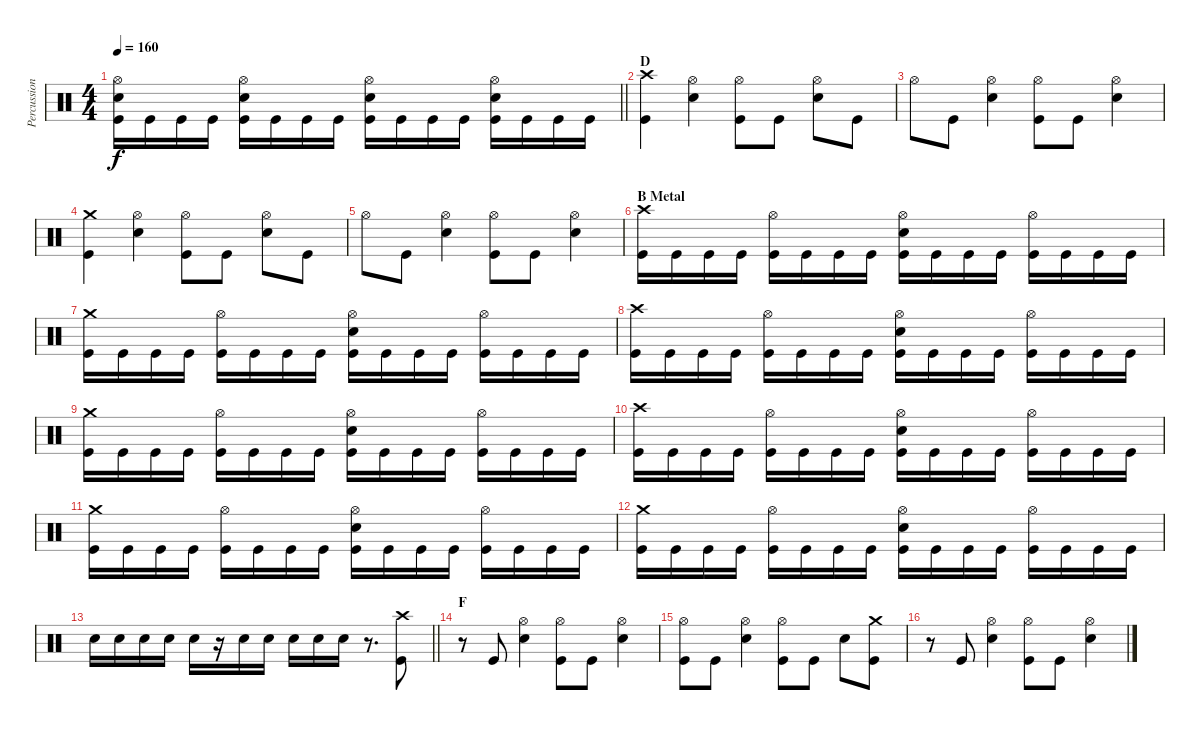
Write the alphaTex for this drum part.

\track ("Percussion" "Percussion") {instrument percussion}
\staff {score}
\articulation defaults
\ts (4 4)
\tempo 160
\clef neutral
\barLineRight lightlight
\ks c
("Hi-Hat (open)" "Electric Snare (hit)" "Kick (hit)").16{dy f} "Kick (hit)".16 "Kick (hit)".16 "Kick (hit)".16 ("Hi-Hat (open)" "Electric Snare (hit)" "Kick (hit)").16 "Kick (hit)".16 "Kick (hit)".16 "Kick (hit)".16 ("Hi-Hat (open)" "Electric Snare (hit)" "Kick (hit)").16 "Kick (hit)".16 "Kick (hit)".16 "Kick (hit)".16 ("Hi-Hat (open)" "Electric Snare (hit)" "Kick (hit)").16 "Kick (hit)".16 "Kick (hit)".16 "Kick (hit)".16 |
\section ("" "D")
("Crash high (hit)" "Kick (hit)").4 ("Hi-Hat (open)" "Electric Snare (hit)").4 ("Hi-Hat (open)" "Kick (hit)").8 "Kick (hit)".8 ("Hi-Hat (open)" "Electric Snare (hit)").8 "Kick (hit)".8 |
"Hi-Hat (open)".8 "Kick (hit)".8 ("Hi-Hat (open)" "Electric Snare (hit)").4 ("Hi-Hat (open)" "Kick (hit)").8 "Kick (hit)".8 ("Hi-Hat (open)" "Electric Snare (hit)").4 |
("Crash medium (hit)" "Kick (hit)").4 ("Hi-Hat (open)" "Electric Snare (hit)").4 ("Hi-Hat (open)" "Kick (hit)").8 "Kick (hit)".8 ("Hi-Hat (open)" "Electric Snare (hit)").8 "Kick (hit)".8 |
"Hi-Hat (open)".8 "Kick (hit)".8 ("Hi-Hat (open)" "Electric Snare (hit)").4 ("Hi-Hat (open)" "Kick (hit)").8 "Kick (hit)".8 ("Hi-Hat (open)" "Electric Snare (hit)").4 |
\section ("" "B Metal")
("Crash high (hit)" "Kick (hit)").16 "Kick (hit)".16 "Kick (hit)".16 "Kick (hit)".16 ("Hi-Hat (open)" "Kick (hit)").16 "Kick (hit)".16 "Kick (hit)".16 "Kick (hit)".16 ("Hi-Hat (open)" "Electric Snare (hit)" "Kick (hit)").16 "Kick (hit)".16 "Kick (hit)".16 "Kick (hit)".16 ("Hi-Hat (open)" "Kick (hit)").16 "Kick (hit)".16 "Kick (hit)".16 "Kick (hit)".16 |
("Crash medium (hit)" "Kick (hit)").16 "Kick (hit)".16 "Kick (hit)".16 "Kick (hit)".16 ("Hi-Hat (open)" "Kick (hit)").16 "Kick (hit)".16 "Kick (hit)".16 "Kick (hit)".16 ("Hi-Hat (open)" "Electric Snare (hit)" "Kick (hit)").16 "Kick (hit)".16 "Kick (hit)".16 "Kick (hit)".16 ("Hi-Hat (open)" "Kick (hit)").16 "Kick (hit)".16 "Kick (hit)".16 "Kick (hit)".16 |
("Crash high (hit)" "Kick (hit)").16 "Kick (hit)".16 "Kick (hit)".16 "Kick (hit)".16 ("Hi-Hat (open)" "Kick (hit)").16 "Kick (hit)".16 "Kick (hit)".16 "Kick (hit)".16 ("Hi-Hat (open)" "Electric Snare (hit)" "Kick (hit)").16 "Kick (hit)".16 "Kick (hit)".16 "Kick (hit)".16 ("Hi-Hat (open)" "Kick (hit)").16 "Kick (hit)".16 "Kick (hit)".16 "Kick (hit)".16 |
("Crash medium (hit)" "Kick (hit)").16 "Kick (hit)".16 "Kick (hit)".16 "Kick (hit)".16 ("Hi-Hat (open)" "Kick (hit)").16 "Kick (hit)".16 "Kick (hit)".16 "Kick (hit)".16 ("Hi-Hat (open)" "Electric Snare (hit)" "Kick (hit)").16 "Kick (hit)".16 "Kick (hit)".16 "Kick (hit)".16 ("Hi-Hat (open)" "Kick (hit)").16 "Kick (hit)".16 "Kick (hit)".16 "Kick (hit)".16 |
("Crash high (hit)" "Kick (hit)").16 "Kick (hit)".16 "Kick (hit)".16 "Kick (hit)".16 ("Hi-Hat (open)" "Kick (hit)").16 "Kick (hit)".16 "Kick (hit)".16 "Kick (hit)".16 ("Hi-Hat (open)" "Electric Snare (hit)" "Kick (hit)").16 "Kick (hit)".16 "Kick (hit)".16 "Kick (hit)".16 ("Hi-Hat (open)" "Kick (hit)").16 "Kick (hit)".16 "Kick (hit)".16 "Kick (hit)".16 |
("Crash medium (hit)" "Kick (hit)").16 "Kick (hit)".16 "Kick (hit)".16 "Kick (hit)".16 ("Hi-Hat (open)" "Kick (hit)").16 "Kick (hit)".16 "Kick (hit)".16 "Kick (hit)".16 ("Hi-Hat (open)" "Electric Snare (hit)" "Kick (hit)").16 "Kick (hit)".16 "Kick (hit)".16 "Kick (hit)".16 ("Hi-Hat (open)" "Kick (hit)").16 "Kick (hit)".16 "Kick (hit)".16 "Kick (hit)".16 |
("Crash medium (hit)" "Kick (hit)").16 "Kick (hit)".16 "Kick (hit)".16 "Kick (hit)".16 ("Hi-Hat (open)" "Kick (hit)").16 "Kick (hit)".16 "Kick (hit)".16 "Kick (hit)".16 ("Hi-Hat (open)" "Electric Snare (hit)" "Kick (hit)").16 "Kick (hit)".16 "Kick (hit)".16 "Kick (hit)".16 ("Hi-Hat (open)" "Kick (hit)").16 "Kick (hit)".16 "Kick (hit)".16 "Kick (hit)".16 |
\barLineRight lightlight "Electric Snare (hit)".16 "Electric Snare (hit)".16 "Electric Snare (hit)".16 "Electric Snare (hit)".16 "Electric Snare (hit)".16
r.16 "Electric Snare (hit)".16 "Electric Snare (hit)".16 "Electric Snare (hit)".16 "Electric Snare (hit)".16 "Electric Snare (hit)".16 r.8{d} ("Crash high (hit)" "Kick (hit)").8 |
\section ("" "F")
r.8 "Kick (hit)".8 ("Hi-Hat (open)" "Electric Snare (hit)").4 ("Hi-Hat (open)" "Kick (hit)").8 "Kick (hit)".8 ("Hi-Hat (open)" "Electric Snare (hit)").4 |
("Hi-Hat (open)" "Kick (hit)").8 "Kick (hit)".8 ("Hi-Hat (open)" "Electric Snare (hit)").4 ("Hi-Hat (open)" "Kick (hit)").8 "Kick (hit)".8 "Electric Snare (hit)".8 ("Crash medium (hit)" "Kick (hit)").8 |
r.8 "Kick (hit)".8 ("Hi-Hat (open)" "Electric Snare (hit)").4 ("Hi-Hat (open)" "Kick (hit)").8 "Kick (hit)".8 ("Hi-Hat (open)" "Electric Snare (hit)").4
